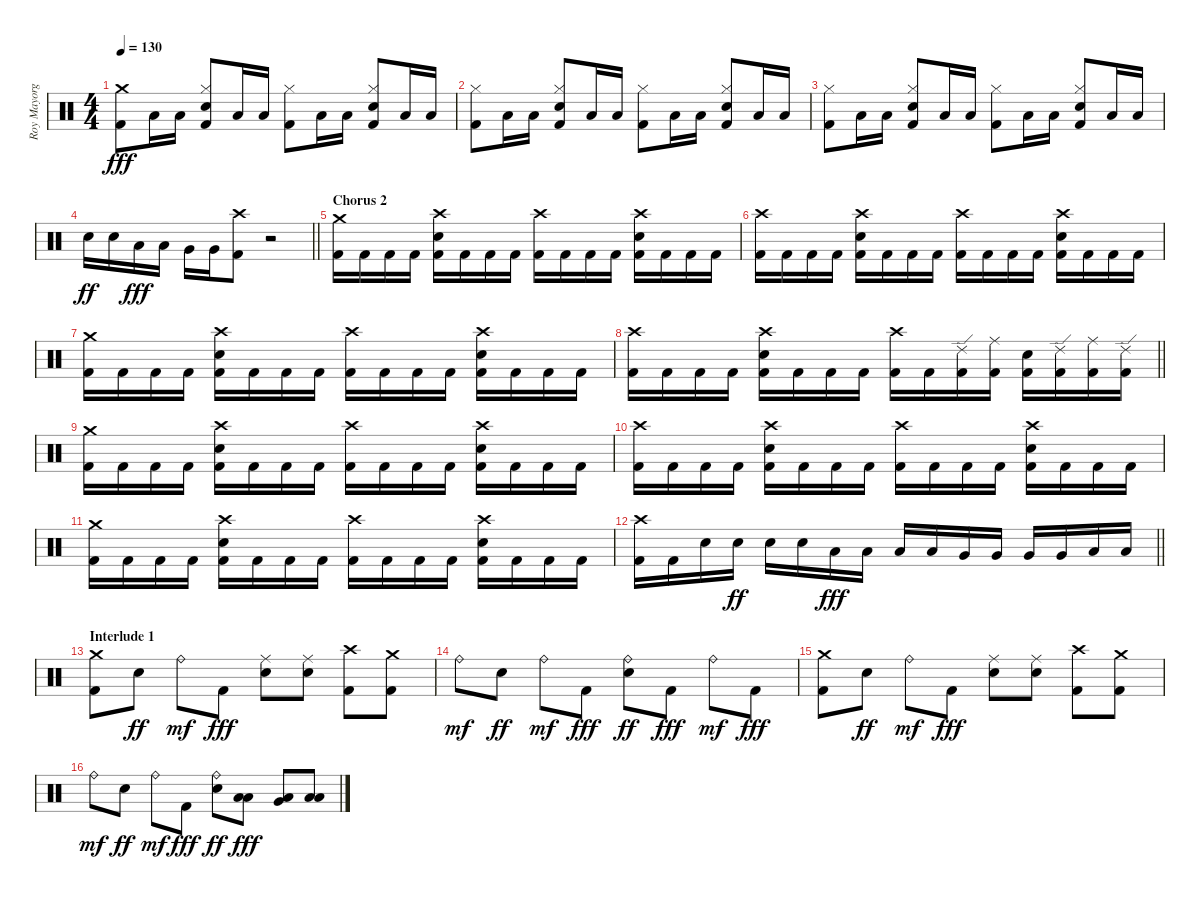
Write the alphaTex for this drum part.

\track ("Roy Mayorga" "Roy Mayorg") {instrument percussion}
\staff {score}
\articulation defaults
\ts (4 4)
\tempo 130
\clef neutral
\ks c
("Crash medium (hit)" "Kick (hit) 2").8{dy fff} "Low Floor Tom (hit)".16 "Low Floor Tom (hit)".16 ("Hi-Hat (closed)" "Electric Snare (hit)" "Kick (hit) 2").8 "Low Floor Tom (hit)".16 "Low Floor Tom (hit)".16 ("Hi-Hat (closed)" "Kick (hit) 2").8 "Low Floor Tom (hit)".16 "Low Floor Tom (hit)".16 ("Hi-Hat (closed)" "Electric Snare (hit)" "Kick (hit) 2").8 "Low Floor Tom (hit)".16 "Low Floor Tom (hit)".16 |
("Hi-Hat (closed)" "Kick (hit) 2").8 "Low Floor Tom (hit)".16 "Low Floor Tom (hit)".16 ("Hi-Hat (closed)" "Electric Snare (hit)" "Kick (hit) 2").8 "Low Floor Tom (hit)".16 "Low Floor Tom (hit)".16 ("Hi-Hat (closed)" "Kick (hit) 2").8 "Low Floor Tom (hit)".16 "Low Floor Tom (hit)".16 ("Hi-Hat (closed)" "Electric Snare (hit)" "Kick (hit) 2").8 "Low Floor Tom (hit)".16 "Low Floor Tom (hit)".16 |
("Hi-Hat (closed)" "Kick (hit) 2").8 "Low Floor Tom (hit)".16 "Low Floor Tom (hit)".16 ("Hi-Hat (closed)" "Electric Snare (hit)" "Kick (hit) 2").8 "Low Floor Tom (hit)".16 "Low Floor Tom (hit)".16 ("Hi-Hat (closed)" "Kick (hit) 2").8 "Low Floor Tom (hit)".16 "Low Floor Tom (hit)".16 ("Hi-Hat (closed)" "Electric Snare (hit)" "Kick (hit) 2").8 "Low Floor Tom (hit)".16 "Low Floor Tom (hit)".16 |
\barLineRight lightlight "Electric Snare (hit)".16{dy ff} "Electric Snare (hit)".16 "Low Tom (hit)".16{dy fff} "Low Tom (hit)".16 "Very Low Tom (hit)".16 "Very Low Tom (hit)".16
("Crash high (hit)" "Kick (hit) 2").8 r.2 |
\section ("" "Chorus 2")
("Crash medium (hit)" "Kick (hit) 2").16 "Kick (hit) 2".16 "Kick (hit) 2".16 "Kick (hit) 2".16 ("Crash high (hit)" "Electric Snare (hit)" "Kick (hit) 2").16 "Kick (hit) 2".16 "Kick (hit) 2".16 "Kick (hit) 2".16 ("Crash high (hit)" "Kick (hit) 2").16 "Kick (hit) 2".16 "Kick (hit) 2".16 "Kick (hit) 2".16 ("Crash high (hit)" "Electric Snare (hit)" "Kick (hit) 2").16 "Kick (hit) 2".16 "Kick (hit) 2".16 "Kick (hit) 2".16 |
("Crash high (hit)" "Kick (hit) 2").16 "Kick (hit) 2".16 "Kick (hit) 2".16 "Kick (hit) 2".16 ("Crash high (hit)" "Electric Snare (hit)" "Kick (hit) 2").16 "Kick (hit) 2".16 "Kick (hit) 2".16 "Kick (hit) 2".16 ("Crash high (hit)" "Kick (hit) 2").16 "Kick (hit) 2".16 "Kick (hit) 2".16 "Kick (hit) 2".16 ("Crash high (hit)" "Electric Snare (hit)" "Kick (hit) 2").16 "Kick (hit) 2".16 "Kick (hit) 2".16 "Kick (hit) 2".16 |
("Crash medium (hit)" "Kick (hit) 2").16 "Kick (hit) 2".16 "Kick (hit) 2".16 "Kick (hit) 2".16 ("Crash high (hit)" "Electric Snare (hit)" "Kick (hit) 2").16 "Kick (hit) 2".16 "Kick (hit) 2".16 "Kick (hit) 2".16 ("Crash high (hit)" "Kick (hit) 2").16 "Kick (hit) 2".16 "Kick (hit) 2".16 "Kick (hit) 2".16 ("Crash high (hit)" "Electric Snare (hit)" "Kick (hit) 2").16 "Kick (hit) 2".16 "Kick (hit) 2".16 "Kick (hit) 2".16 |
\barLineRight lightlight
("Crash high (hit)" "Kick (hit) 2").16 "Kick (hit) 2".16 "Kick (hit) 2".16 "Kick (hit) 2".16 ("Crash high (hit)" "Electric Snare (hit)" "Kick (hit) 2").16 "Kick (hit) 2".16 "Kick (hit) 2".16 "Kick (hit) 2".16 ("Crash high (hit)" "Kick (hit) 2").16 "Kick (hit) 2".16 ("Ride (edge) 2" "Kick (hit) 2").16 ("Ride (middle)" "Kick (hit) 2").16 ("Electric Snare (hit)" "Kick (hit) 2").16 ("Ride (edge) 2" "Kick (hit) 2").16 ("Ride (middle)" "Kick (hit) 2").16 ("Ride (edge) 2" "Kick (hit) 2").16 |
("Crash medium (hit)" "Kick (hit) 2").16 "Kick (hit) 2".16 "Kick (hit) 2".16 "Kick (hit) 2".16 ("Crash high (hit)" "Electric Snare (hit)" "Kick (hit) 2").16 "Kick (hit) 2".16 "Kick (hit) 2".16 "Kick (hit) 2".16 ("Crash high (hit)" "Kick (hit) 2").16 "Kick (hit) 2".16 "Kick (hit) 2".16 "Kick (hit) 2".16 ("Crash high (hit)" "Electric Snare (hit)" "Kick (hit) 2").16 "Kick (hit) 2".16 "Kick (hit) 2".16 "Kick (hit) 2".16 |
("Crash high (hit)" "Kick (hit) 2").16 "Kick (hit) 2".16 "Kick (hit) 2".16 "Kick (hit) 2".16 ("Crash high (hit)" "Electric Snare (hit)" "Kick (hit) 2").16 "Kick (hit) 2".16 "Kick (hit) 2".16 "Kick (hit) 2".16 ("Crash high (hit)" "Kick (hit) 2").16 "Kick (hit) 2".16 "Kick (hit) 2".16 "Kick (hit) 2".16 ("Crash high (hit)" "Electric Snare (hit)" "Kick (hit) 2").16 "Kick (hit) 2".16 "Kick (hit) 2".16 "Kick (hit) 2".16 |
("Crash medium (hit)" "Kick (hit) 2").16 "Kick (hit) 2".16 "Kick (hit) 2".16 "Kick (hit) 2".16 ("Crash high (hit)" "Electric Snare (hit)" "Kick (hit) 2").16 "Kick (hit) 2".16 "Kick (hit) 2".16 "Kick (hit) 2".16 ("Crash high (hit)" "Kick (hit) 2").16 "Kick (hit) 2".16 "Kick (hit) 2".16 "Kick (hit) 2".16 ("Crash high (hit)" "Electric Snare (hit)" "Kick (hit) 2").16 "Kick (hit) 2".16 "Kick (hit) 2".16 "Kick (hit) 2".16 |
\barLineRight lightlight
("Crash high (hit)" "Kick (hit) 2").16 "Kick (hit) 2".16 "Electric Snare (hit)".16 "Electric Snare (hit)".16{dy ff} "Electric Snare (hit)".16 "Electric Snare (hit)".16 "Low Tom (hit)".16{dy fff} "Low Tom (hit)".16 "Low Tom (hit)".16 "Low Tom (hit)".16 "Very Low Tom (hit)".16 "Very Low Tom (hit)".16 "Very Low Tom (hit)".16 "Very Low Tom (hit)".16 "Low Floor Tom (hit)".16 "Low Floor Tom (hit)".16 |
\section ("" "Interlude 1")
("Crash medium (hit)" "Kick (hit) 2").8 "Electric Snare (hit)".8{dy ff} "Ride (bell)".8{dy mf} "Kick (hit) 2".8{dy fff} ("Ride (middle)" "Electric Snare (hit)").8 ("Ride (middle)" "Electric Snare (hit)").8 ("Crash high (hit)" "Kick (hit) 2").8 ("Crash medium (hit)" "Kick (hit) 2").8 |
"Ride (bell)".8{dy mf} "Electric Snare (hit)".8{dy ff} "Ride (bell)".8{dy mf} "Kick (hit) 2".8{dy fff} ("Ride (bell)" "Electric Snare (hit)").8{dy ff} "Kick (hit) 2".8{dy fff} "Ride (bell)".8{dy mf} "Kick (hit) 2".8{dy fff} |
("Crash medium (hit)" "Kick (hit) 2").8 "Electric Snare (hit)".8{dy ff} "Ride (bell)".8{dy mf} "Kick (hit) 2".8{dy fff} ("Ride (middle)" "Electric Snare (hit)").8 ("Ride (middle)" "Electric Snare (hit)").8 ("Crash high (hit)" "Kick (hit) 2").8 ("Crash medium (hit)" "Kick (hit) 2").8 |
"Ride (bell)".8{dy mf} "Electric Snare (hit)".8{dy ff} "Ride (bell)".8{dy mf} "Kick (hit) 2".8{dy fff} ("Ride (bell)" "Electric Snare (hit)").8{dy ff} ("Low Tom (hit)" "Low Floor Tom (hit)").8{dy fff} ("Very Low Tom (hit)" "Low Floor Tom (hit)").8 ("Low Floor Tom (hit)" "Low Floor Tom (hit)").8
